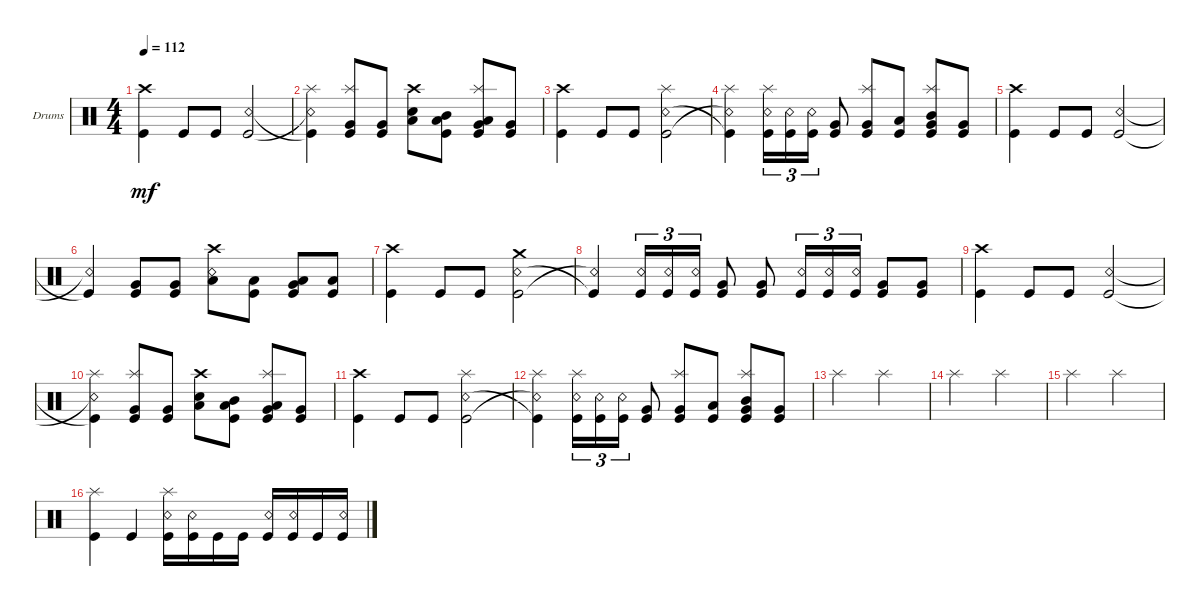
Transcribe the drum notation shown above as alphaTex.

\defaultSystemsLayout 4
\bracketExtendMode groupsimilarinstruments
\firstSystemTrackNameOrientation horizontal
\otherSystemsTrackNameOrientation horizontal
\track ("Drumkit" "Drums") {instrument percussion}
\staff {score}
\articulation defaults
\ts (4 4)
\tempo 112
\clef neutral
\ks c
("Kick (hit)" "Crash high (hit)").4{dy mf} "Kick (hit)".8 "Kick (hit)".8 ("Snare (rim shot)" "Kick (hit)").2 |
("Kick (hit)"{t} "Snare (rim shot)"{t} "Splash (hit)").4 ("Kick (hit)" "Very Low Tom (hit)" "Splash (hit)").8 ("Kick (hit)" "Very Low Tom (hit)").8 ("Snare (hit) 2" "Crash high (hit)" "Low Tom (hit)").8 ("Kick (hit)" "Mid Tom (hit)" "Low Tom (hit)").8 ("Kick (hit)" "Very Low Tom (hit)" "Low Tom (hit)" "Splash (hit)").8 ("Kick (hit)" "Very Low Tom (hit)").8 |
("Kick (hit)" "Crash high (hit)").4 "Kick (hit)".8 "Kick (hit)".8 ("Snare (rim shot)" "Kick (hit)" "Splash (hit)").2 |
("Kick (hit)"{t} "Snare (rim shot)"{t} "Splash (hit)").4 ("Snare (rim shot)" "Kick (hit)" "Splash (hit)").16{tu (3 2)} ("Kick (hit)" "Snare (rim shot)").16{tu (3 2)} ("Kick (hit)" "Snare (rim shot)").16{tu (3 2)} ("Kick (hit)" "Very Low Tom (hit)").8 ("Kick (hit)" "Very Low Tom (hit)" "Splash (hit)").8 ("Kick (hit)" "Low Tom (hit)").8 ("Kick (hit)" "Very Low Tom (hit)" "Mid Tom (hit)" "Splash (hit)").8 ("Kick (hit)" "Very Low Tom (hit)").8 |
("Kick (hit)" "Crash high (hit)").4 "Kick (hit)".8 "Kick (hit)".8 ("Snare (rim shot)" "Kick (hit)").2 |
("Kick (hit)"{t} "Snare (rim shot)"{t}).4 ("Kick (hit)" "Very Low Tom (hit)").8 ("Kick (hit)" "Very Low Tom (hit)").8 ("Snare (rim shot)" "Crash high (hit)" "Low Tom (hit)").8 ("Kick (hit)" "Low Tom (hit)").8 ("Kick (hit)" "Very Low Tom (hit)" "Low Tom (hit)").8 ("Kick (hit)" "Low Tom (hit)").8 |
("Kick (hit)" "Crash high (hit)").4 "Kick (hit)".8 "Kick (hit)".8 ("Snare (rim shot)" "Kick (hit)" "Crash medium (hit)").2 |
("Kick (hit)"{t} "Snare (rim shot)"{t}).4 ("Snare (rim shot)" "Kick (hit)").16{tu (3 2)} ("Kick (hit)" "Snare (rim shot)").16{tu (3 2)} ("Kick (hit)" "Snare (rim shot)").16{tu (3 2)} ("Kick (hit)" "Very Low Tom (hit)").8 ("Kick (hit)" "Very Low Tom (hit)").8 ("Snare (rim shot)" "Kick (hit)").16{tu (3 2)} ("Snare (rim shot)" "Kick (hit)").16{tu (3 2)} ("Snare (rim shot)" "Kick (hit)").16{tu (3 2)} ("Kick (hit)" "Very Low Tom (hit)").8 ("Kick (hit)" "Very Low Tom (hit)").8 |
("Kick (hit)" "Crash high (hit)").4 "Kick (hit)".8 "Kick (hit)".8 ("Snare (rim shot)" "Kick (hit)").2 |
("Kick (hit)"{t} "Snare (rim shot)"{t} "Splash (hit)").4 ("Kick (hit)" "Very Low Tom (hit)" "Splash (hit)").8 ("Kick (hit)" "Very Low Tom (hit)").8 ("Snare (hit) 2" "Crash high (hit)" "Low Tom (hit)").8 ("Kick (hit)" "Mid Tom (hit)" "Low Tom (hit)").8 ("Kick (hit)" "Very Low Tom (hit)" "Low Tom (hit)" "Splash (hit)").8 ("Kick (hit)" "Very Low Tom (hit)").8 |
("Kick (hit)" "Crash high (hit)").4 "Kick (hit)".8 "Kick (hit)".8 ("Snare (rim shot)" "Kick (hit)" "Splash (hit)").2 |
("Kick (hit)"{t} "Snare (rim shot)"{t} "Splash (hit)").4 ("Snare (rim shot)" "Kick (hit)" "Splash (hit)").16{tu (3 2)} ("Kick (hit)" "Snare (rim shot)").16{tu (3 2)} ("Kick (hit)" "Snare (rim shot)").16{tu (3 2)} ("Kick (hit)" "Very Low Tom (hit)").8 ("Kick (hit)" "Very Low Tom (hit)" "Splash (hit)").8 ("Kick (hit)" "Low Tom (hit)").8 ("Kick (hit)" "Very Low Tom (hit)" "Mid Tom (hit)" "Splash (hit)").8 ("Kick (hit)" "Very Low Tom (hit)").8 |
"Splash (hit)".2 "Splash (hit)".2 |
"Splash (hit)".2 "Splash (hit)".2 |
"Splash (hit)".2 "Splash (hit)".2 |
("Splash (hit)" "Kick (hit)").4 "Kick (hit)".4 ("Snare (rim shot)" "Splash (hit)" "Kick (hit)").16 ("Snare (rim shot)" "Kick (hit)").16 "Kick (hit)".16 "Kick (hit)".16 ("Snare (rim shot)" "Kick (hit)").16 ("Snare (rim shot)" "Kick (hit)").16 "Kick (hit)".16 ("Kick (hit)" "Snare (rim shot)").16
